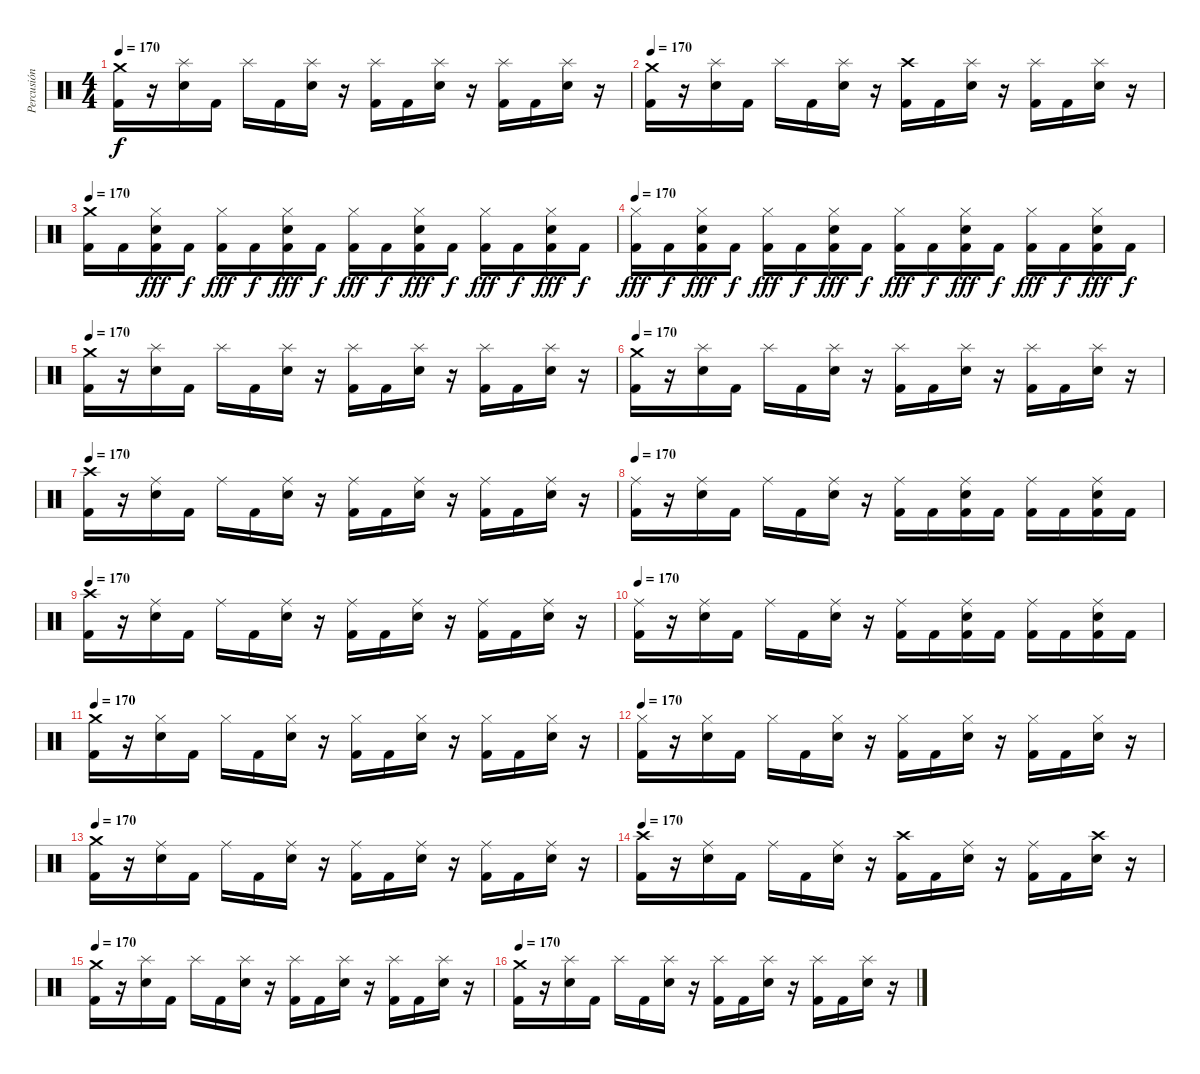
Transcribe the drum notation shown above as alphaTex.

\track ("Percusión" "Percusión") {instrument percussion}
\staff {score}
\articulation defaults
\ts (4 4)
\tempo 170
\clef neutral
\ks c
("Crash medium (hit)" "Kick (hit) 2").16{dy f} r.16 ("Splash (hit)" "Snare (hit) 2").16 "Kick (hit) 2".16 "Splash (hit)".16 "Kick (hit) 2".16 ("Splash (hit)" "Snare (hit) 2").16 r.16 ("Splash (hit)" "Kick (hit) 2").16 "Kick (hit) 2".16 ("Splash (hit)" "Snare (hit) 2").16 r.16 ("Splash (hit)" "Kick (hit) 2").16 "Kick (hit) 2".16 ("Splash (hit)" "Snare (hit) 2").16 r.16 |
\tempo 170
("Crash medium (hit)" "Kick (hit) 2").16 r.16 ("Splash (hit)" "Snare (hit) 2").16 "Kick (hit) 2".16 "Splash (hit)".16 "Kick (hit) 2".16 ("Splash (hit)" "Snare (hit) 2").16 r.16 ("Crash high (hit)" "Kick (hit) 2").16 "Kick (hit) 2".16 ("Splash (hit)" "Snare (hit) 2").16 r.16 ("Splash (hit)" "Kick (hit) 2").16 "Kick (hit) 2".16 ("Splash (hit)" "Snare (hit) 2").16 r.16 |
\tempo 170
("Crash medium (hit)" "Kick (hit) 2").16 "Kick (hit) 2".16 ("Hi-Hat (closed)" "Snare (hit) 2" "Kick (hit) 2").16{dy fff} "Kick (hit) 2".16{dy f} ("Hi-Hat (closed)" "Kick (hit) 2").16{dy fff} "Kick (hit) 2".16{dy f} ("Hi-Hat (closed)" "Snare (hit) 2" "Kick (hit) 2").16{dy fff} "Kick (hit) 2".16{dy f} ("Hi-Hat (closed)" "Kick (hit) 2").16{dy fff} "Kick (hit) 2".16{dy f} ("Hi-Hat (closed)" "Snare (hit) 2" "Kick (hit) 2").16{dy fff} "Kick (hit) 2".16{dy f} ("Hi-Hat (closed)" "Kick (hit) 2").16{dy fff} "Kick (hit) 2".16{dy f} ("Hi-Hat (closed)" "Snare (hit) 2" "Kick (hit) 2").16{dy fff} "Kick (hit) 2".16{dy f} |
\tempo 170
("Hi-Hat (closed)" "Kick (hit) 2").16{dy fff} "Kick (hit) 2".16{dy f} ("Hi-Hat (closed)" "Snare (hit) 2" "Kick (hit) 2").16{dy fff} "Kick (hit) 2".16{dy f} ("Hi-Hat (closed)" "Kick (hit) 2").16{dy fff} "Kick (hit) 2".16{dy f} ("Hi-Hat (closed)" "Snare (hit) 2" "Kick (hit) 2").16{dy fff} "Kick (hit) 2".16{dy f} ("Hi-Hat (closed)" "Kick (hit) 2").16{dy fff} "Kick (hit) 2".16{dy f} ("Hi-Hat (closed)" "Snare (hit) 2" "Kick (hit) 2").16{dy fff} "Kick (hit) 2".16{dy f} ("Hi-Hat (closed)" "Kick (hit) 2").16{dy fff} "Kick (hit) 2".16{dy f} ("Hi-Hat (closed)" "Snare (hit) 2" "Kick (hit) 2").16{dy fff} "Kick (hit) 2".16{dy f} |
\tempo 170
("Crash medium (hit)" "Kick (hit) 2").16 r.16 ("Splash (hit)" "Snare (hit) 2").16 "Kick (hit) 2".16 "Splash (hit)".16 "Kick (hit) 2".16 ("Splash (hit)" "Snare (hit) 2").16 r.16 ("Splash (hit)" "Kick (hit) 2").16 "Kick (hit) 2".16 ("Splash (hit)" "Snare (hit) 2").16 r.16 ("Splash (hit)" "Kick (hit) 2").16 "Kick (hit) 2".16 ("Splash (hit)" "Snare (hit) 2").16 r.16 |
\tempo 170
("Crash medium (hit)" "Kick (hit) 2").16 r.16 ("Splash (hit)" "Snare (hit) 2").16 "Kick (hit) 2".16 "Splash (hit)".16 "Kick (hit) 2".16 ("Splash (hit)" "Snare (hit) 2").16 r.16 ("Splash (hit)" "Kick (hit) 2").16 "Kick (hit) 2".16 ("Splash (hit)" "Snare (hit) 2").16 r.16 ("Splash (hit)" "Kick (hit) 2").16 "Kick (hit) 2".16 ("Splash (hit)" "Snare (hit) 2").16 r.16 |
\section ("" "")
\tempo 170
("Crash high (hit)" "Kick (hit) 2").16 r.16 ("Ride (middle)" "Snare (hit) 2").16 "Kick (hit) 2".16 "Ride (middle)".16 "Kick (hit) 2".16 ("Ride (middle)" "Snare (hit) 2").16 r.16 ("Ride (middle)" "Kick (hit) 2").16 "Kick (hit) 2".16 ("Ride (middle)" "Snare (hit) 2").16 r.16 ("Ride (middle)" "Kick (hit) 2").16 "Kick (hit) 2".16 ("Ride (middle)" "Snare (hit) 2").16 r.16 |
\tempo 170
("Ride (middle)" "Kick (hit) 2").16 r.16 ("Ride (middle)" "Snare (hit) 2").16 "Kick (hit) 2".16 "Ride (middle)".16 "Kick (hit) 2".16 ("Ride (middle)" "Snare (hit) 2").16 r.16 ("Ride (middle)" "Kick (hit) 2").16 "Kick (hit) 2".16 ("Ride (middle)" "Snare (hit) 2" "Kick (hit) 2").16 "Kick (hit) 2".16 ("Ride (middle)" "Kick (hit) 2").16 "Kick (hit) 2".16 ("Ride (middle)" "Snare (hit) 2" "Kick (hit) 2").16 "Kick (hit) 2".16 |
\tempo 170
("Crash high (hit)" "Kick (hit) 2").16 r.16 ("Ride (middle)" "Snare (hit) 2").16 "Kick (hit) 2".16 "Ride (middle)".16 "Kick (hit) 2".16 ("Ride (middle)" "Snare (hit) 2").16 r.16 ("Ride (middle)" "Kick (hit) 2").16 "Kick (hit) 2".16 ("Ride (middle)" "Snare (hit) 2").16 r.16 ("Ride (middle)" "Kick (hit) 2").16 "Kick (hit) 2".16 ("Ride (middle)" "Snare (hit) 2").16 r.16 |
\tempo 170
("Ride (middle)" "Kick (hit) 2").16 r.16 ("Ride (middle)" "Snare (hit) 2").16 "Kick (hit) 2".16 "Ride (middle)".16 "Kick (hit) 2".16 ("Ride (middle)" "Snare (hit) 2").16 r.16 ("Ride (middle)" "Kick (hit) 2").16 "Kick (hit) 2".16 ("Ride (middle)" "Snare (hit) 2" "Kick (hit) 2").16 "Kick (hit) 2".16 ("Ride (middle)" "Kick (hit) 2").16 "Kick (hit) 2".16 ("Ride (middle)" "Snare (hit) 2" "Kick (hit) 2").16 "Kick (hit) 2".16 |
\tempo 170
("Crash medium (hit)" "Kick (hit) 2").16 r.16 ("Hi-Hat (closed)" "Snare (hit) 2").16 "Kick (hit) 2".16 "Hi-Hat (closed)".16 "Kick (hit) 2".16 ("Hi-Hat (closed)" "Snare (hit) 2").16 r.16 ("Hi-Hat (closed)" "Kick (hit) 2").16 "Kick (hit) 2".16 ("Hi-Hat (closed)" "Snare (hit) 2").16 r.16 ("Hi-Hat (closed)" "Kick (hit) 2").16 "Kick (hit) 2".16 ("Hi-Hat (closed)" "Snare (hit) 2").16 r.16 |
\tempo 170
("Hi-Hat (closed)" "Kick (hit) 2").16 r.16 ("Hi-Hat (closed)" "Snare (hit) 2").16 "Kick (hit) 2".16 "Hi-Hat (closed)".16 "Kick (hit) 2".16 ("Hi-Hat (closed)" "Snare (hit) 2").16 r.16 ("Hi-Hat (closed)" "Kick (hit) 2").16 "Kick (hit) 2".16 ("Hi-Hat (closed)" "Snare (hit) 2").16 r.16 ("Hi-Hat (closed)" "Kick (hit) 2").16 "Kick (hit) 2".16 ("Hi-Hat (closed)" "Snare (hit) 2").16 r.16 |
\tempo 170
("Crash medium (hit)" "Kick (hit) 2").16 r.16 ("Ride (middle)" "Snare (hit) 2").16 "Kick (hit) 2".16 "Ride (middle)".16 "Kick (hit) 2".16 ("Ride (middle)" "Snare (hit) 2").16 r.16 ("Ride (middle)" "Kick (hit) 2").16 "Kick (hit) 2".16 ("Ride (middle)" "Snare (hit) 2").16 r.16 ("Ride (middle)" "Kick (hit) 2").16 "Kick (hit) 2".16 ("Ride (middle)" "Snare (hit) 2").16 r.16 |
\tempo 170
("Crash high (hit)" "Kick (hit) 2").16 r.16 ("Ride (middle)" "Snare (hit) 2").16 "Kick (hit) 2".16 "Ride (middle)".16 "Kick (hit) 2".16 ("Ride (middle)" "Snare (hit) 2").16 r.16 ("Crash high (hit)" "Kick (hit) 2").16 "Kick (hit) 2".16 ("Ride (middle)" "Snare (hit) 2").16 r.16 ("Ride (middle)" "Kick (hit) 2").16 "Kick (hit) 2".16 ("Crash high (hit)" "Snare (hit) 2").16 r.16 |
\section ("" "")
\tempo 170
("Crash medium (hit)" "Kick (hit) 2").16 r.16 ("Splash (hit)" "Snare (hit) 2").16 "Kick (hit) 2".16 "Splash (hit)".16 "Kick (hit) 2".16 ("Splash (hit)" "Snare (hit) 2").16 r.16 ("Splash (hit)" "Kick (hit) 2").16 "Kick (hit) 2".16 ("Splash (hit)" "Snare (hit) 2").16 r.16 ("Splash (hit)" "Kick (hit) 2").16 "Kick (hit) 2".16 ("Splash (hit)" "Snare (hit) 2").16 r.16 |
\tempo 170
("Crash medium (hit)" "Kick (hit) 2").16 r.16 ("Splash (hit)" "Snare (hit) 2").16 "Kick (hit) 2".16 "Splash (hit)".16 "Kick (hit) 2".16 ("Splash (hit)" "Snare (hit) 2").16 r.16 ("Splash (hit)" "Kick (hit) 2").16 "Kick (hit) 2".16 ("Splash (hit)" "Snare (hit) 2").16 r.16 ("Splash (hit)" "Kick (hit) 2").16 "Kick (hit) 2".16 ("Splash (hit)" "Snare (hit) 2").16 r.16
